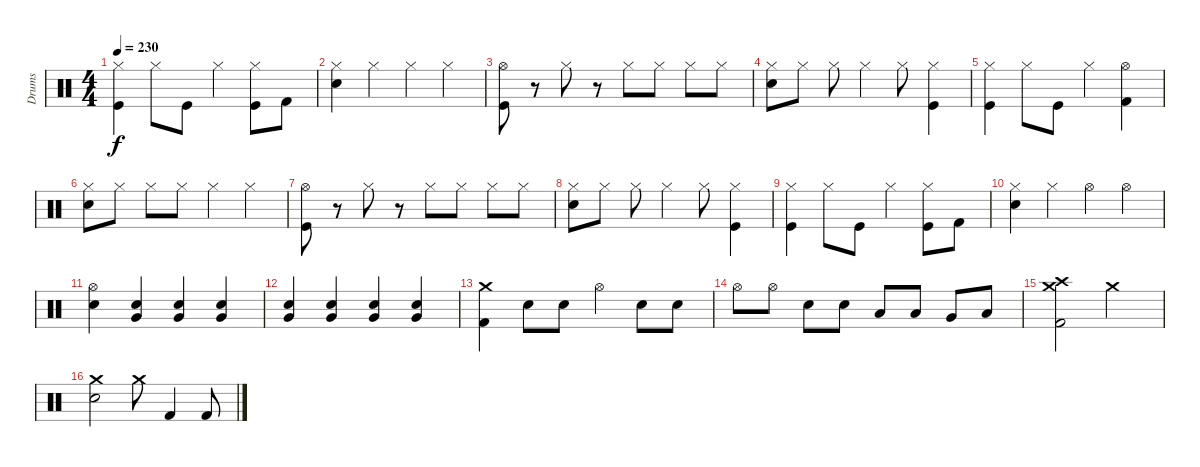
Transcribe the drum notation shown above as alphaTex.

\track ("Drums" "Drums") {instrument percussion}
\staff {score}
\articulation defaults
\ts (4 4)
\tempo 230
\clef neutral
\ks c
("Hi-Hat (closed)" "Kick (hit)").4{dy f} "Hi-Hat (closed)".8 "Kick (hit)".8 "Hi-Hat (closed)".4 ("Hi-Hat (closed)" "Kick (hit)").8 "Kick (hit) 2".8 |
("Hi-Hat (closed)" "Snare (hit) 2").4 "Hi-Hat (closed)".4 "Hi-Hat (closed)".4 "Hi-Hat (closed)".4 |
("Hi-Hat (open)" "Kick (hit)").8 r.8 "Hi-Hat (closed)".8 r.8 "Hi-Hat (closed)".8 "Hi-Hat (closed)".8 "Hi-Hat (closed)".8 "Hi-Hat (closed)".8 |
("Hi-Hat (closed)" "Snare (hit) 2").8 "Hi-Hat (closed)".8 "Hi-Hat (closed)".8 "Hi-Hat (closed)".4 "Hi-Hat (closed)".8 ("Hi-Hat (closed)" "Kick (hit)").4 |
("Hi-Hat (closed)" "Kick (hit)").4 "Hi-Hat (closed)".8 "Kick (hit)".8 "Hi-Hat (closed)".4 ("Hi-Hat (open)" "Kick (hit) 2").4 |
("Hi-Hat (closed)" "Snare (hit) 2").8 "Hi-Hat (closed)".8 "Hi-Hat (closed)".8 "Hi-Hat (closed)".8 "Hi-Hat (closed)".4 "Hi-Hat (closed)".4 |
("Hi-Hat (open)" "Kick (hit)").8 r.8 "Hi-Hat (closed)".8 r.8 "Hi-Hat (closed)".8 "Hi-Hat (closed)".8 "Hi-Hat (closed)".8 "Hi-Hat (closed)".8 |
("Hi-Hat (closed)" "Snare (hit) 2").8 "Hi-Hat (closed)".8 "Hi-Hat (closed)".8 "Hi-Hat (closed)".4 "Hi-Hat (closed)".8 ("Hi-Hat (closed)" "Kick (hit)").4 |
("Hi-Hat (closed)" "Kick (hit)").4 "Hi-Hat (closed)".8 "Kick (hit)".8 "Hi-Hat (closed)".4 ("Hi-Hat (closed)" "Kick (hit)").8 "Kick (hit) 2".8 |
("Hi-Hat (closed)" "Snare (hit) 2").4 "Hi-Hat (closed)".4 "Hi-Hat (open)".4 "Hi-Hat (open)".4 |
("Hi-Hat (open)" "Electric Snare (hit)").4 ("Very Low Tom (hit)" "Electric Snare (hit)").4 ("Very Low Tom (hit)" "Electric Snare (hit)").4 ("Very Low Tom (hit)" "Electric Snare (hit)").4 |
("Very Low Tom (hit)" "Electric Snare (hit)").4 ("Very Low Tom (hit)" "Electric Snare (hit)").4 ("Very Low Tom (hit)" "Electric Snare (hit)").4 ("Very Low Tom (hit)" "Electric Snare (hit)").4 |
("Crash medium (hit)" "Kick (hit) 2").4 "Electric Snare (hit)".8 "Electric Snare (hit)".8 "Hi-Hat (open)".4 "Electric Snare (hit)".8 "Electric Snare (hit)".8 |
"Hi-Hat (open)".8 "Hi-Hat (open)".8 "Electric Snare (hit)".8 "Electric Snare (hit)".8 "Low Tom (hit)".8 "Low Tom (hit)".8 "Very Low Tom (hit)".8 "Low Floor Tom (hit)".8 |
("Crash medium (hit)" "Crash high (hit)" "Kick (hit) 2").2 "Crash medium (hit)".2 |
("Crash medium (hit)" "Electric Snare (hit)").2 "Crash medium (hit)".8 "Kick (hit) 2".4 "Kick (hit) 2".8
